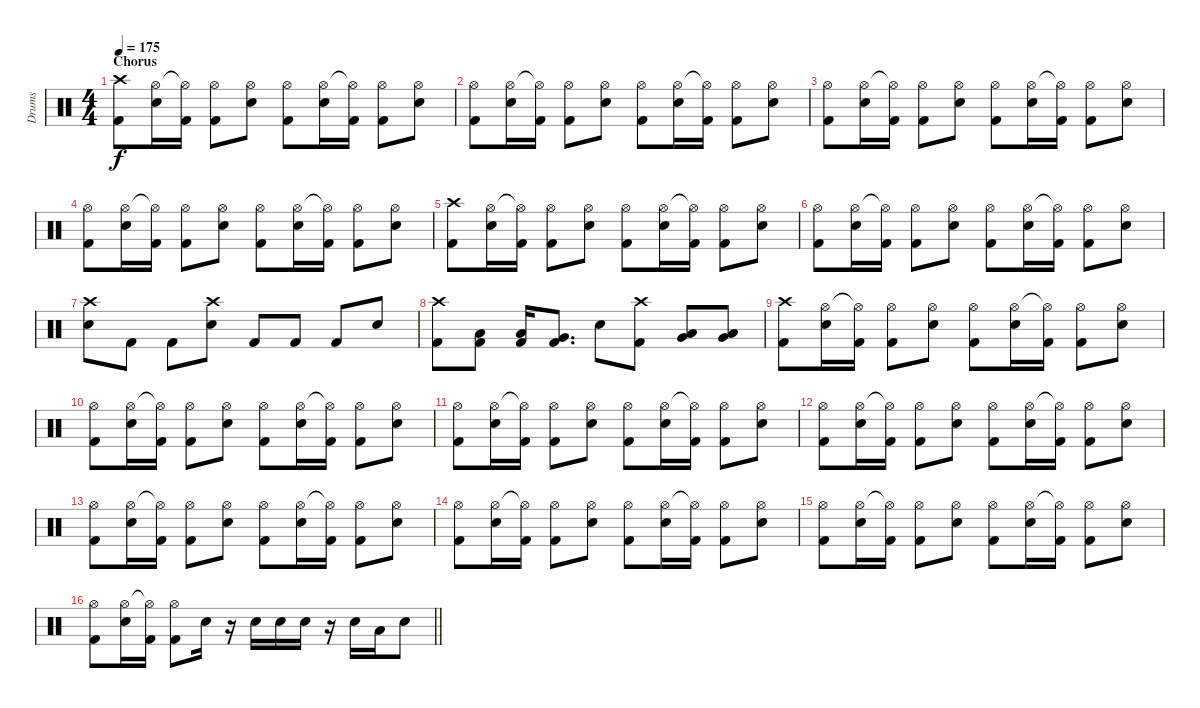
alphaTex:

\track ("Drums" "Drums") {instrument percussion}
\staff {score}
\articulation defaults
\ts (4 4)
\section ("" "Chorus")
\tempo 175
\clef neutral
\ks c
("Crash high (hit)" "Kick (hit) 2").8{dy f} ("Hi-Hat (open)" "Electric Snare (hit)").16 ("Hi-Hat (open)"{t} "Kick (hit) 2").16 ("Hi-Hat (open)" "Kick (hit) 2").8 ("Hi-Hat (open)" "Electric Snare (hit)").8 ("Hi-Hat (open)" "Kick (hit) 2").8 ("Hi-Hat (open)" "Electric Snare (hit)").16 ("Hi-Hat (open)"{t} "Kick (hit) 2").16 ("Hi-Hat (open)" "Kick (hit) 2").8 ("Hi-Hat (open)" "Electric Snare (hit)").8 |
("Hi-Hat (open)" "Kick (hit) 2").8 ("Hi-Hat (open)" "Electric Snare (hit)").16 ("Hi-Hat (open)"{t} "Kick (hit) 2").16 ("Hi-Hat (open)" "Kick (hit) 2").8 ("Hi-Hat (open)" "Electric Snare (hit)").8 ("Hi-Hat (open)" "Kick (hit) 2").8 ("Hi-Hat (open)" "Electric Snare (hit)").16 ("Hi-Hat (open)"{t} "Kick (hit) 2").16 ("Hi-Hat (open)" "Kick (hit) 2").8 ("Hi-Hat (open)" "Electric Snare (hit)").8 |
("Hi-Hat (open)" "Kick (hit) 2").8 ("Hi-Hat (open)" "Electric Snare (hit)").16 ("Hi-Hat (open)"{t} "Kick (hit) 2").16 ("Hi-Hat (open)" "Kick (hit) 2").8 ("Hi-Hat (open)" "Electric Snare (hit)").8 ("Hi-Hat (open)" "Kick (hit) 2").8 ("Hi-Hat (open)" "Electric Snare (hit)").16 ("Hi-Hat (open)"{t} "Kick (hit) 2").16 ("Hi-Hat (open)" "Kick (hit) 2").8 ("Hi-Hat (open)" "Electric Snare (hit)").8 |
("Hi-Hat (open)" "Kick (hit) 2").8 ("Hi-Hat (open)" "Electric Snare (hit)").16 ("Hi-Hat (open)"{t} "Kick (hit) 2").16 ("Hi-Hat (open)" "Kick (hit) 2").8 ("Hi-Hat (open)" "Electric Snare (hit)").8 ("Hi-Hat (open)" "Kick (hit) 2").8 ("Hi-Hat (open)" "Electric Snare (hit)").16 ("Hi-Hat (open)"{t} "Kick (hit) 2").16 ("Hi-Hat (open)" "Kick (hit) 2").8 ("Hi-Hat (open)" "Electric Snare (hit)").8 |
("Crash high (hit)" "Kick (hit) 2").8 ("Hi-Hat (open)" "Electric Snare (hit)").16 ("Hi-Hat (open)"{t} "Kick (hit) 2").16 ("Hi-Hat (open)" "Kick (hit) 2").8 ("Hi-Hat (open)" "Electric Snare (hit)").8 ("Hi-Hat (open)" "Kick (hit) 2").8 ("Hi-Hat (open)" "Electric Snare (hit)").16 ("Hi-Hat (open)"{t} "Kick (hit) 2").16 ("Hi-Hat (open)" "Kick (hit) 2").8 ("Hi-Hat (open)" "Electric Snare (hit)").8 |
("Hi-Hat (open)" "Kick (hit) 2").8 ("Hi-Hat (open)" "Electric Snare (hit)").16 ("Hi-Hat (open)"{t} "Kick (hit) 2").16 ("Hi-Hat (open)" "Kick (hit) 2").8 ("Hi-Hat (open)" "Electric Snare (hit)").8 ("Hi-Hat (open)" "Kick (hit) 2").8 ("Hi-Hat (open)" "Electric Snare (hit)").16 ("Hi-Hat (open)"{t} "Kick (hit) 2").16 ("Hi-Hat (open)" "Kick (hit) 2").8 ("Hi-Hat (open)" "Electric Snare (hit)").8 |
("Crash high (hit)" "Electric Snare (hit)").8 "Kick (hit) 2".8 "Kick (hit) 2".8 ("Crash high (hit)" "Electric Snare (hit)").8 "Kick (hit) 2".8 "Kick (hit) 2".8 "Kick (hit) 2".8 "Electric Snare (hit)".8 |
("Crash high (hit)" "Kick (hit) 2").8 ("Low Tom (hit)" "Kick (hit) 2").8 ("Low Tom (hit)" "Kick (hit) 2").16 ("Very Low Tom (hit)" "Kick (hit) 2").8{d} "Electric Snare (hit)".8 ("Crash high (hit)" "Kick (hit) 2").8 ("Low Tom (hit)" "Very Low Tom (hit)").8 ("Low Tom (hit)" "Very Low Tom (hit)").8 |
("Crash high (hit)" "Kick (hit) 2").8 ("Hi-Hat (open)" "Electric Snare (hit)").16 ("Hi-Hat (open)"{t} "Kick (hit) 2").16 ("Hi-Hat (open)" "Kick (hit) 2").8 ("Hi-Hat (open)" "Electric Snare (hit)").8 ("Hi-Hat (open)" "Kick (hit) 2").8 ("Hi-Hat (open)" "Electric Snare (hit)").16 ("Hi-Hat (open)"{t} "Kick (hit) 2").16 ("Hi-Hat (open)" "Kick (hit) 2").8 ("Hi-Hat (open)" "Electric Snare (hit)").8 |
("Hi-Hat (open)" "Kick (hit) 2").8 ("Hi-Hat (open)" "Electric Snare (hit)").16 ("Hi-Hat (open)"{t} "Kick (hit) 2").16 ("Hi-Hat (open)" "Kick (hit) 2").8 ("Hi-Hat (open)" "Electric Snare (hit)").8 ("Hi-Hat (open)" "Kick (hit) 2").8 ("Hi-Hat (open)" "Electric Snare (hit)").16 ("Hi-Hat (open)"{t} "Kick (hit) 2").16 ("Hi-Hat (open)" "Kick (hit) 2").8 ("Hi-Hat (open)" "Electric Snare (hit)").8 |
("Hi-Hat (open)" "Kick (hit) 2").8 ("Hi-Hat (open)" "Electric Snare (hit)").16 ("Hi-Hat (open)"{t} "Kick (hit) 2").16 ("Hi-Hat (open)" "Kick (hit) 2").8 ("Hi-Hat (open)" "Electric Snare (hit)").8 ("Hi-Hat (open)" "Kick (hit) 2").8 ("Hi-Hat (open)" "Electric Snare (hit)").16 ("Hi-Hat (open)"{t} "Kick (hit) 2").16 ("Hi-Hat (open)" "Kick (hit) 2").8 ("Hi-Hat (open)" "Electric Snare (hit)").8 |
("Hi-Hat (open)" "Kick (hit) 2").8 ("Hi-Hat (open)" "Electric Snare (hit)").16 ("Hi-Hat (open)"{t} "Kick (hit) 2").16 ("Hi-Hat (open)" "Kick (hit) 2").8 ("Hi-Hat (open)" "Electric Snare (hit)").8 ("Hi-Hat (open)" "Kick (hit) 2").8 ("Hi-Hat (open)" "Electric Snare (hit)").16 ("Hi-Hat (open)"{t} "Kick (hit) 2").16 ("Hi-Hat (open)" "Kick (hit) 2").8 ("Hi-Hat (open)" "Electric Snare (hit)").8 |
("Hi-Hat (open)" "Kick (hit) 2").8 ("Hi-Hat (open)" "Electric Snare (hit)").16 ("Hi-Hat (open)"{t} "Kick (hit) 2").16 ("Hi-Hat (open)" "Kick (hit) 2").8 ("Hi-Hat (open)" "Electric Snare (hit)").8 ("Hi-Hat (open)" "Kick (hit) 2").8 ("Hi-Hat (open)" "Electric Snare (hit)").16 ("Hi-Hat (open)"{t} "Kick (hit) 2").16 ("Hi-Hat (open)" "Kick (hit) 2").8 ("Hi-Hat (open)" "Electric Snare (hit)").8 |
("Hi-Hat (open)" "Kick (hit) 2").8 ("Hi-Hat (open)" "Electric Snare (hit)").16 ("Hi-Hat (open)"{t} "Kick (hit) 2").16 ("Hi-Hat (open)" "Kick (hit) 2").8 ("Hi-Hat (open)" "Electric Snare (hit)").8 ("Hi-Hat (open)" "Kick (hit) 2").8 ("Hi-Hat (open)" "Electric Snare (hit)").16 ("Hi-Hat (open)"{t} "Kick (hit) 2").16 ("Hi-Hat (open)" "Kick (hit) 2").8 ("Hi-Hat (open)" "Electric Snare (hit)").8 |
("Hi-Hat (open)" "Kick (hit) 2").8 ("Hi-Hat (open)" "Electric Snare (hit)").16 ("Hi-Hat (open)"{t} "Kick (hit) 2").16 ("Hi-Hat (open)" "Kick (hit) 2").8 ("Hi-Hat (open)" "Electric Snare (hit)").8 ("Hi-Hat (open)" "Kick (hit) 2").8 ("Hi-Hat (open)" "Electric Snare (hit)").16 ("Hi-Hat (open)"{t} "Kick (hit) 2").16 ("Hi-Hat (open)" "Kick (hit) 2").8 ("Hi-Hat (open)" "Electric Snare (hit)").8 |
\barLineRight lightlight
("Hi-Hat (open)" "Kick (hit) 2").8 ("Hi-Hat (open)" "Electric Snare (hit)").16 ("Hi-Hat (open)"{t} "Kick (hit) 2").16 ("Hi-Hat (open)" "Kick (hit) 2").8 "Electric Snare (hit)".16 r.16 "Electric Snare (hit)".16 "Electric Snare (hit)".16 "Electric Snare (hit)".16 r.16 "Electric Snare (hit)".16 "Low Tom (hit)".16 "Electric Snare (hit)".8
